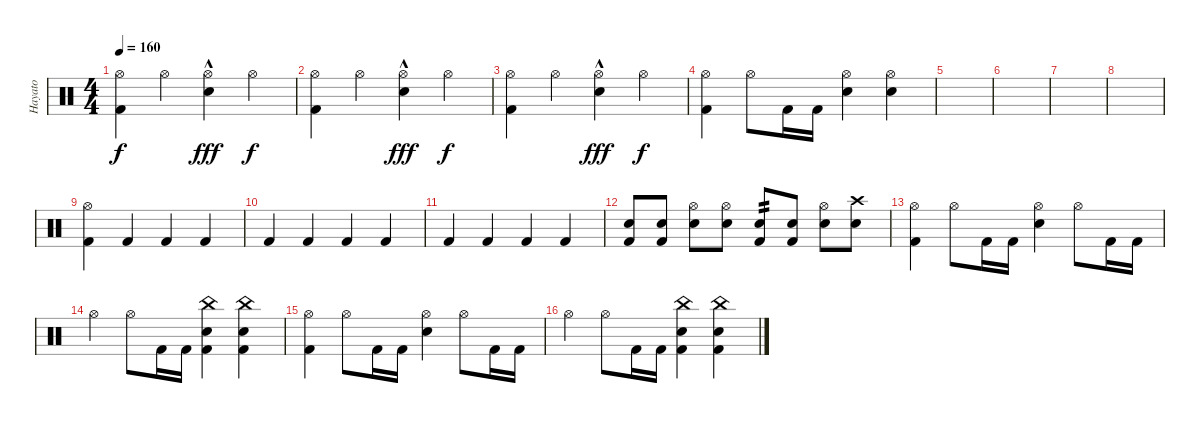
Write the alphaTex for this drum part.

\track ("Hayato" "Hayato") {instrument percussion}
\staff {score}
\articulation defaults
\ts (4 4)
\tempo 160
\clef neutral
\ks c
("Hi-Hat (open)" "Kick (hit) 2").4{dy f} "Hi-Hat (open)".4 ("Hi-Hat (open)" "Snare (hit) 2"{hac}).4{dy fff} "Hi-Hat (open)".4{dy f} |
("Hi-Hat (open)" "Kick (hit) 2").4 "Hi-Hat (open)".4 ("Hi-Hat (open)" "Snare (hit) 2"{hac}).4{dy fff} "Hi-Hat (open)".4{dy f} |
("Hi-Hat (open)" "Kick (hit) 2").4 "Hi-Hat (open)".4 ("Hi-Hat (open)" "Snare (hit) 2"{hac}).4{dy fff} "Hi-Hat (open)".4{dy f} |
("Hi-Hat (open)" "Kick (hit) 2").4 "Hi-Hat (open)".8 "Kick (hit) 2".16 "Kick (hit) 2".16 ("Hi-Hat (open)" "Snare (hit) 2").4 ("Hi-Hat (open)" "Snare (hit) 2").4 |
|
|
|
|
("Hi-Hat (open)" "Kick (hit) 2").4 "Kick (hit) 2".4 "Kick (hit) 2".4 "Kick (hit) 2".4 |
"Kick (hit) 2".4 "Kick (hit) 2".4 "Kick (hit) 2".4 "Kick (hit) 2".4 |
"Kick (hit) 2".4 "Kick (hit) 2".4 "Kick (hit) 2".4 "Kick (hit) 2".4 |
("Snare (hit) 2" "Kick (hit) 2").8 ("Snare (hit) 2" "Kick (hit) 2").8 ("Hi-Hat (open)" "Snare (hit) 2").8 ("Hi-Hat (open)" "Snare (hit) 2").8 ("Snare (hit) 2" "Kick (hit) 2").8{tp 2} ("Snare (hit) 2" "Kick (hit) 2").8 ("Hi-Hat (open)" "Snare (hit) 2").8 ("Crash high (hit)" "Snare (hit) 2").8 |
("Hi-Hat (open)" "Kick (hit) 2").4 "Hi-Hat (open)".8 "Kick (hit) 2".16 "Kick (hit) 2".16 ("Hi-Hat (open)" "Snare (hit) 2").4 "Hi-Hat (open)".8 "Kick (hit) 2".16 "Kick (hit) 2".16 |
"Hi-Hat (open)".4 "Hi-Hat (open)".8 "Kick (hit) 2".16 "Kick (hit) 2".16 ("China (hit)" "Snare (hit) 2" "Kick (hit) 2").4 ("China (hit)" "Snare (hit) 2" "Kick (hit) 2").4 |
("Hi-Hat (open)" "Kick (hit) 2").4 "Hi-Hat (open)".8 "Kick (hit) 2".16 "Kick (hit) 2".16 ("Hi-Hat (open)" "Snare (hit) 2").4 "Hi-Hat (open)".8 "Kick (hit) 2".16 "Kick (hit) 2".16 |
"Hi-Hat (open)".4 "Hi-Hat (open)".8 "Kick (hit) 2".16 "Kick (hit) 2".16 ("China (hit)" "Snare (hit) 2" "Kick (hit) 2").4 ("China (hit)" "Snare (hit) 2" "Kick (hit) 2").4
